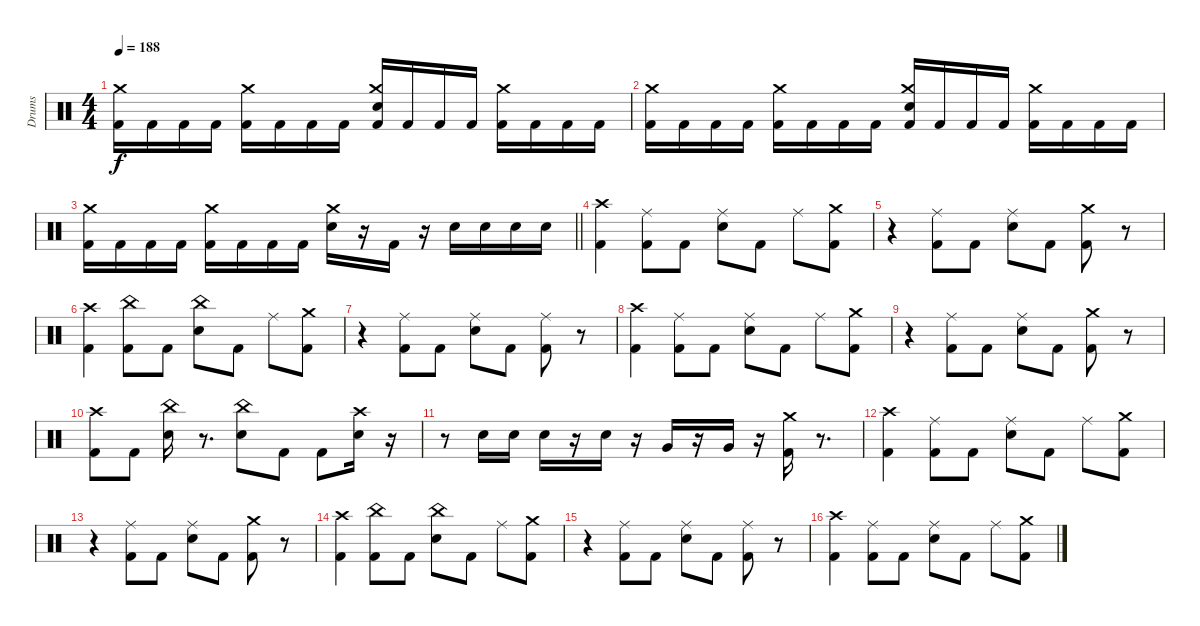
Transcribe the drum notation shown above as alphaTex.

\track ("Drums" "Drums") {instrument percussion}
\staff {score}
\articulation defaults
\ts (4 4)
\tempo 188
\clef neutral
\ks c
("Kick (hit) 2" "Crash medium (hit)").16{dy f} "Kick (hit) 2".16 "Kick (hit) 2".16 "Kick (hit) 2".16 ("Kick (hit) 2" "Crash medium (hit)").16 "Kick (hit) 2".16 "Kick (hit) 2".16 "Kick (hit) 2".16 ("Kick (hit) 2" "Snare (hit) 2" "Crash medium (hit)").16 "Kick (hit) 2".16 "Kick (hit) 2".16 "Kick (hit) 2".16 ("Kick (hit) 2" "Crash medium (hit)").16 "Kick (hit) 2".16 "Kick (hit) 2".16 "Kick (hit) 2".16 |
("Kick (hit) 2" "Crash medium (hit)").16 "Kick (hit) 2".16 "Kick (hit) 2".16 "Kick (hit) 2".16 ("Kick (hit) 2" "Crash medium (hit)").16 "Kick (hit) 2".16 "Kick (hit) 2".16 "Kick (hit) 2".16 ("Kick (hit) 2" "Snare (hit) 2" "Crash medium (hit)").16 "Kick (hit) 2".16 "Kick (hit) 2".16 "Kick (hit) 2".16 ("Kick (hit) 2" "Crash medium (hit)").16 "Kick (hit) 2".16 "Kick (hit) 2".16 "Kick (hit) 2".16 |
\barLineRight lightlight
("Kick (hit) 2" "Crash medium (hit)").16 "Kick (hit) 2".16 "Kick (hit) 2".16 "Kick (hit) 2".16 ("Kick (hit) 2" "Crash medium (hit)").16 "Kick (hit) 2".16 "Kick (hit) 2".16 "Kick (hit) 2".16 ("Snare (hit) 2" "Crash medium (hit)").16 r.16 "Kick (hit) 2".16 r.16 "Snare (hit) 2".16 "Snare (hit) 2".16 "Snare (hit) 2".16 "Snare (hit) 2".16 |
\section ("" " ")
("Kick (hit) 2" "Crash high (hit)").4 ("Kick (hit) 2" "Ride (middle)").8 "Kick (hit) 2".8 ("Snare (hit) 2" "Ride (middle)").8 "Kick (hit) 2".8 "Ride (middle)".8 ("Kick (hit) 2" "Crash medium (hit)").8 |
r.4 ("Kick (hit) 2" "Ride (middle)").8 "Kick (hit) 2".8 ("Snare (hit) 2" "Ride (middle)").8 "Kick (hit) 2".8 ("Kick (hit) 2" "Crash medium (hit)").8 r.8 |
("Kick (hit) 2" "Crash high (hit)").4 ("Kick (hit) 2" "China (hit)").8 "Kick (hit) 2".8 ("Snare (hit) 2" "China (hit)").8 "Kick (hit) 2".8 "Ride (middle)".8 ("Kick (hit) 2" "Crash medium (hit)").8 |
r.4 ("Kick (hit) 2" "Ride (middle)").8 "Kick (hit) 2".8 ("Snare (hit) 2" "Ride (middle)").8 "Kick (hit) 2".8 ("Kick (hit) 2" "Ride (middle)").8 r.8 |
("Kick (hit) 2" "Crash high (hit)").4 ("Kick (hit) 2" "Ride (middle)").8 "Kick (hit) 2".8 ("Snare (hit) 2" "Ride (middle)").8 "Kick (hit) 2".8 "Ride (middle)".8 ("Kick (hit) 2" "Crash medium (hit)").8 |
r.4 ("Kick (hit) 2" "Ride (middle)").8 "Kick (hit) 2".8 ("Snare (hit) 2" "Ride (middle)").8 "Kick (hit) 2".8 ("Kick (hit) 2" "Crash medium (hit)").8 r.8 |
("Kick (hit) 2" "Crash high (hit)").8 "Kick (hit) 2".8 ("Snare (hit) 2" "China (hit)").16 r.8{d} ("Snare (hit) 2" "China (hit)").8 "Kick (hit) 2".8 "Kick (hit) 2".8 ("Snare (hit) 2" "Crash high (hit)").16 r.16 |
r.8 "Snare (hit) 2".16 "Snare (hit) 2".16 "Snare (hit) 2".16 r.16 "Snare (hit) 2".16 r.16 "Very Low Tom (hit)".16 r.16 "Very Low Tom (hit)".16 r.16 ("Kick (hit) 2" "Crash medium (hit)").16 r.8{d} |
("Kick (hit) 2" "Crash high (hit)").4 ("Kick (hit) 2" "Ride (middle)").8 "Kick (hit) 2".8 ("Snare (hit) 2" "Ride (middle)").8 "Kick (hit) 2".8 "Ride (middle)".8 ("Kick (hit) 2" "Crash medium (hit)").8 |
r.4 ("Kick (hit) 2" "Ride (middle)").8 "Kick (hit) 2".8 ("Snare (hit) 2" "Ride (middle)").8 "Kick (hit) 2".8 ("Kick (hit) 2" "Crash medium (hit)").8 r.8 |
("Kick (hit) 2" "Crash high (hit)").4 ("Kick (hit) 2" "China (hit)").8 "Kick (hit) 2".8 ("Snare (hit) 2" "China (hit)").8 "Kick (hit) 2".8 "Ride (middle)".8 ("Kick (hit) 2" "Crash medium (hit)").8 |
r.4 ("Kick (hit) 2" "Ride (middle)").8 "Kick (hit) 2".8 ("Snare (hit) 2" "Ride (middle)").8 "Kick (hit) 2".8 ("Kick (hit) 2" "Ride (middle)").8 r.8 |
("Kick (hit) 2" "Crash high (hit)").4 ("Kick (hit) 2" "Ride (middle)").8 "Kick (hit) 2".8 ("Snare (hit) 2" "Ride (middle)").8 "Kick (hit) 2".8 "Ride (middle)".8 ("Kick (hit) 2" "Crash medium (hit)").8
